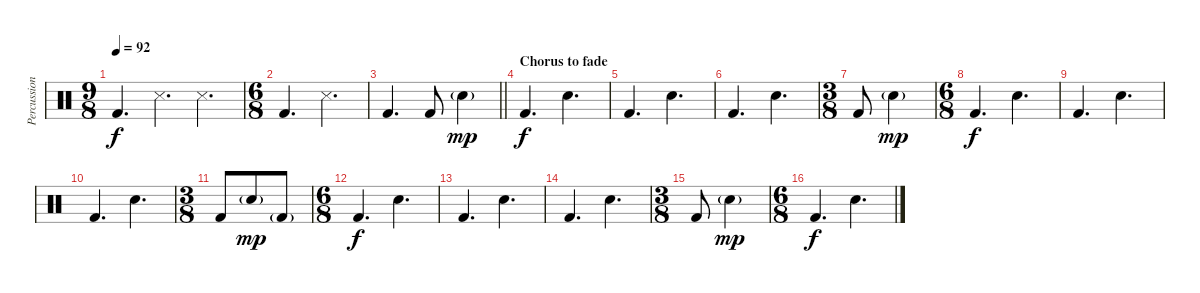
\track ("Percussion" "Percussion") {instrument percussion}
\staff {score}
\articulation defaults
\ts (9 8)
\tempo 92
\clef neutral
\ks c "Kick (hit) 2".4{d dy f} "Snare (side stick) 3".4{d} "Snare (side stick) 3".4{d}
|
\ts (6 8)
"Kick (hit) 2".4{d} "Snare (side stick) 3".4{d} |
\barLineRight lightlight "Kick (hit) 2".4{d} "Kick (hit) 2".8 "Snare (hit) 2"{g}.4{dy mp}
|
\section ("" "Chorus to fade")
"Kick (hit) 2".4{d dy f} "Snare (hit) 2".4{d} |
"Kick (hit) 2".4{d} "Snare (hit) 2".4{d} |
"Kick (hit) 2".4{d} "Snare (hit) 2".4{d} |
\ts (3 8)
"Kick (hit) 2".8 "Snare (hit) 2"{g}.4{dy mp} |
\ts (6 8)
"Kick (hit) 2".4{d dy f} "Snare (hit) 2".4{d} |
"Kick (hit) 2".4{d} "Snare (hit) 2".4{d} |
"Kick (hit) 2".4{d} "Snare (hit) 2".4{d} |
\ts (3 8)
"Kick (hit) 2".8 "Snare (hit) 2"{g}.8{dy mp} "Kick (hit) 2"{g}.8 |
\ts (6 8)
"Kick (hit) 2".4{d dy f} "Snare (hit) 2".4{d} |
"Kick (hit) 2".4{d} "Snare (hit) 2".4{d} |
"Kick (hit) 2".4{d} "Snare (hit) 2".4{d} |
\ts (3 8)
"Kick (hit) 2".8 "Snare (hit) 2"{g}.4{dy mp} |
\ts (6 8)
"Kick (hit) 2".4{d dy f} "Snare (hit) 2".4{d}
